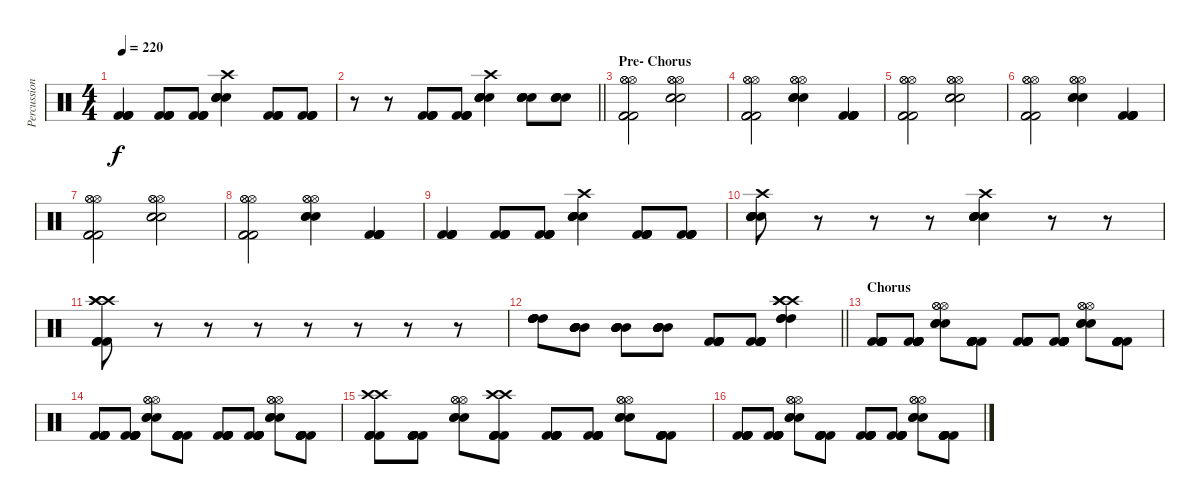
\track ("Percussion" "Percussion") {instrument percussion}
\staff {score}
\articulation defaults
\ts (4 4)
\tempo 220
\clef neutral
\ks c
("Kick (hit) 2" "Kick (hit) 2" "Kick (hit) 2" "Kick (hit) 2").4{dy f} ("Kick (hit) 2" "Kick (hit) 2" "Kick (hit) 2" "Kick (hit) 2").8 ("Kick (hit) 2" "Kick (hit) 2" "Kick (hit) 2" "Kick (hit) 2").8 ("Crash high (hit)" "Snare (hit) 2" "Snare (hit) 2" "Snare (hit) 2" "Snare (hit) 2").4 ("Kick (hit) 2" "Kick (hit) 2" "Kick (hit) 2" "Kick (hit) 2").8 ("Kick (hit) 2" "Kick (hit) 2" "Kick (hit) 2" "Kick (hit) 2").8 |
\barLineRight lightlight
r.8 r.8 ("Kick (hit) 2" "Kick (hit) 2" "Kick (hit) 2" "Kick (hit) 2").8 ("Kick (hit) 2" "Kick (hit) 2" "Kick (hit) 2" "Kick (hit) 2").8 ("Crash high (hit)" "Snare (hit) 2" "Snare (hit) 2" "Snare (hit) 2" "Snare (hit) 2").4 ("Snare (hit) 2" "Snare (hit) 2" "Snare (hit) 2" "Snare (hit) 2").8 ("Snare (hit) 2" "Snare (hit) 2" "Snare (hit) 2" "Snare (hit) 2").8 |
\section ("" "Pre- Chorus")
("Hi-Hat (open)" "Hi-Hat (open)" "Hi-Hat (open)" "Kick (hit) 2" "Kick (hit) 2" "Kick (hit) 2").2 ("Hi-Hat (open)" "Hi-Hat (open)" "Hi-Hat (open)" "Snare (hit) 2" "Snare (hit) 2" "Snare (hit) 2").2 |
("Hi-Hat (open)" "Hi-Hat (open)" "Hi-Hat (open)" "Kick (hit) 2" "Kick (hit) 2" "Kick (hit) 2").2 ("Hi-Hat (open)" "Hi-Hat (open)" "Hi-Hat (open)" "Snare (hit) 2" "Snare (hit) 2" "Snare (hit) 2").4 ("Kick (hit) 2" "Kick (hit) 2" "Kick (hit) 2" "Kick (hit) 2" "Kick (hit) 2").4 |
("Hi-Hat (open)" "Hi-Hat (open)" "Hi-Hat (open)" "Kick (hit) 2" "Kick (hit) 2" "Kick (hit) 2").2 ("Hi-Hat (open)" "Hi-Hat (open)" "Hi-Hat (open)" "Snare (hit) 2" "Snare (hit) 2" "Snare (hit) 2").2 |
("Hi-Hat (open)" "Hi-Hat (open)" "Hi-Hat (open)" "Kick (hit) 2" "Kick (hit) 2" "Kick (hit) 2").2 ("Hi-Hat (open)" "Hi-Hat (open)" "Hi-Hat (open)" "Snare (hit) 2" "Snare (hit) 2" "Snare (hit) 2").4 ("Kick (hit) 2" "Kick (hit) 2" "Kick (hit) 2" "Kick (hit) 2" "Kick (hit) 2").4 |
("Hi-Hat (open)" "Hi-Hat (open)" "Hi-Hat (open)" "Kick (hit) 2" "Kick (hit) 2" "Kick (hit) 2").2 ("Hi-Hat (open)" "Hi-Hat (open)" "Hi-Hat (open)" "Snare (hit) 2" "Snare (hit) 2" "Snare (hit) 2").2 |
("Hi-Hat (open)" "Hi-Hat (open)" "Hi-Hat (open)" "Kick (hit) 2" "Kick (hit) 2" "Kick (hit) 2").2 ("Hi-Hat (open)" "Hi-Hat (open)" "Hi-Hat (open)" "Snare (hit) 2" "Snare (hit) 2" "Snare (hit) 2").4 ("Kick (hit) 2" "Kick (hit) 2" "Kick (hit) 2" "Kick (hit) 2" "Kick (hit) 2").4 |
("Kick (hit) 2" "Kick (hit) 2" "Kick (hit) 2" "Kick (hit) 2").4 ("Kick (hit) 2" "Kick (hit) 2" "Kick (hit) 2" "Kick (hit) 2").8 ("Kick (hit) 2" "Kick (hit) 2" "Kick (hit) 2" "Kick (hit) 2").8 ("Crash high (hit)" "Snare (hit) 2" "Snare (hit) 2" "Snare (hit) 2" "Snare (hit) 2").4 ("Kick (hit) 2" "Kick (hit) 2" "Kick (hit) 2" "Kick (hit) 2").8 ("Kick (hit) 2" "Kick (hit) 2" "Kick (hit) 2" "Kick (hit) 2").8 |
("Crash high (hit)" "Snare (hit) 2" "Snare (hit) 2" "Snare (hit) 2" "Snare (hit) 2" "Snare (hit) 2").8 r.8 r.8 r.8 ("Crash high (hit)" "Snare (hit) 2" "Snare (hit) 2" "Snare (hit) 2" "Snare (hit) 2").4 r.8 r.8 |
("Crash high (hit)" "Crash high (hit)" "Crash high (hit)" "Kick (hit) 2" "Kick (hit) 2" "Kick (hit) 2").8 r.8 r.8 r.8 r.8 r.8 r.8 r.8 |
\barLineRight lightlight
("High Tom (hit)" "High Tom (hit)" "High Tom (hit)" "High Tom (hit)" "High Tom (hit)").8 ("Mid Tom (hit)" "Mid Tom (hit)" "Mid Tom (hit)" "Mid Tom (hit)" "Mid Tom (hit)").8 ("Mid Tom (hit)" "Mid Tom (hit)" "Mid Tom (hit)" "Mid Tom (hit)" "Mid Tom (hit)").8 ("Mid Tom (hit)" "Mid Tom (hit)" "Mid Tom (hit)" "Mid Tom (hit)" "Mid Tom (hit)").8 ("Kick (hit) 2" "Kick (hit) 2" "Kick (hit) 2" "Kick (hit) 2" "Kick (hit) 2").8 ("Kick (hit) 2" "Kick (hit) 2" "Kick (hit) 2" "Kick (hit) 2" "Kick (hit) 2").8 ("Crash high (hit)" "Crash high (hit)" "Crash high (hit)" "High Tom (hit)" "High Tom (hit)" "High Tom (hit)").4 |
\section ("" "Chorus")
("Kick (hit) 2" "Kick (hit) 2" "Kick (hit) 2" "Kick (hit) 2" "Kick (hit) 2" "Kick (hit) 2").8 ("Kick (hit) 2" "Kick (hit) 2" "Kick (hit) 2" "Kick (hit) 2" "Kick (hit) 2" "Kick (hit) 2").8 ("Hi-Hat (open)" "Hi-Hat (open)" "Hi-Hat (open)" "Snare (hit) 2" "Snare (hit) 2" "Snare (hit) 2").8 ("Kick (hit) 2" "Kick (hit) 2" "Kick (hit) 2" "Kick (hit) 2" "Kick (hit) 2" "Kick (hit) 2").8 ("Kick (hit) 2" "Kick (hit) 2" "Kick (hit) 2" "Kick (hit) 2" "Kick (hit) 2" "Kick (hit) 2").8 ("Kick (hit) 2" "Kick (hit) 2" "Kick (hit) 2" "Kick (hit) 2" "Kick (hit) 2" "Kick (hit) 2").8 ("Hi-Hat (open)" "Hi-Hat (open)" "Hi-Hat (open)" "Snare (hit) 2" "Snare (hit) 2" "Snare (hit) 2").8 ("Kick (hit) 2" "Kick (hit) 2" "Kick (hit) 2" "Kick (hit) 2" "Kick (hit) 2" "Kick (hit) 2").8 |
("Kick (hit) 2" "Kick (hit) 2" "Kick (hit) 2" "Kick (hit) 2" "Kick (hit) 2" "Kick (hit) 2").8 ("Kick (hit) 2" "Kick (hit) 2" "Kick (hit) 2" "Kick (hit) 2" "Kick (hit) 2" "Kick (hit) 2").8 ("Hi-Hat (open)" "Hi-Hat (open)" "Hi-Hat (open)" "Snare (hit) 2" "Snare (hit) 2" "Snare (hit) 2").8 ("Kick (hit) 2" "Kick (hit) 2" "Kick (hit) 2" "Kick (hit) 2" "Kick (hit) 2" "Kick (hit) 2").8 ("Kick (hit) 2" "Kick (hit) 2" "Kick (hit) 2" "Kick (hit) 2" "Kick (hit) 2" "Kick (hit) 2").8 ("Kick (hit) 2" "Kick (hit) 2" "Kick (hit) 2" "Kick (hit) 2" "Kick (hit) 2" "Kick (hit) 2").8 ("Hi-Hat (open)" "Hi-Hat (open)" "Hi-Hat (open)" "Snare (hit) 2" "Snare (hit) 2" "Snare (hit) 2").8 ("Kick (hit) 2" "Kick (hit) 2" "Kick (hit) 2" "Kick (hit) 2" "Kick (hit) 2" "Kick (hit) 2").8 |
("Crash high (hit)" "Crash high (hit)" "Kick (hit) 2" "Kick (hit) 2" "Kick (hit) 2" "Kick (hit) 2").8 ("Kick (hit) 2" "Kick (hit) 2" "Kick (hit) 2" "Kick (hit) 2" "Kick (hit) 2" "Kick (hit) 2").8 ("Hi-Hat (open)" "Hi-Hat (open)" "Hi-Hat (open)" "Snare (hit) 2" "Snare (hit) 2" "Snare (hit) 2").8 ("Crash high (hit)" "Crash high (hit)" "Kick (hit) 2" "Kick (hit) 2" "Kick (hit) 2" "Kick (hit) 2").8 ("Kick (hit) 2" "Kick (hit) 2" "Kick (hit) 2" "Kick (hit) 2" "Kick (hit) 2" "Kick (hit) 2").8 ("Kick (hit) 2" "Kick (hit) 2" "Kick (hit) 2" "Kick (hit) 2" "Kick (hit) 2" "Kick (hit) 2").8 ("Hi-Hat (open)" "Hi-Hat (open)" "Hi-Hat (open)" "Snare (hit) 2" "Snare (hit) 2" "Snare (hit) 2").8 ("Kick (hit) 2" "Kick (hit) 2" "Kick (hit) 2" "Kick (hit) 2" "Kick (hit) 2" "Kick (hit) 2").8 |
("Kick (hit) 2" "Kick (hit) 2" "Kick (hit) 2" "Kick (hit) 2" "Kick (hit) 2" "Kick (hit) 2").8 ("Kick (hit) 2" "Kick (hit) 2" "Kick (hit) 2" "Kick (hit) 2" "Kick (hit) 2" "Kick (hit) 2").8 ("Hi-Hat (open)" "Hi-Hat (open)" "Hi-Hat (open)" "Snare (hit) 2" "Snare (hit) 2" "Snare (hit) 2").8 ("Kick (hit) 2" "Kick (hit) 2" "Kick (hit) 2" "Kick (hit) 2" "Kick (hit) 2" "Kick (hit) 2").8 ("Kick (hit) 2" "Kick (hit) 2" "Kick (hit) 2" "Kick (hit) 2" "Kick (hit) 2" "Kick (hit) 2").8 ("Kick (hit) 2" "Kick (hit) 2" "Kick (hit) 2" "Kick (hit) 2" "Kick (hit) 2" "Kick (hit) 2").8 ("Hi-Hat (open)" "Hi-Hat (open)" "Hi-Hat (open)" "Snare (hit) 2" "Snare (hit) 2" "Snare (hit) 2").8 ("Kick (hit) 2" "Kick (hit) 2" "Kick (hit) 2" "Kick (hit) 2" "Kick (hit) 2" "Kick (hit) 2").8
